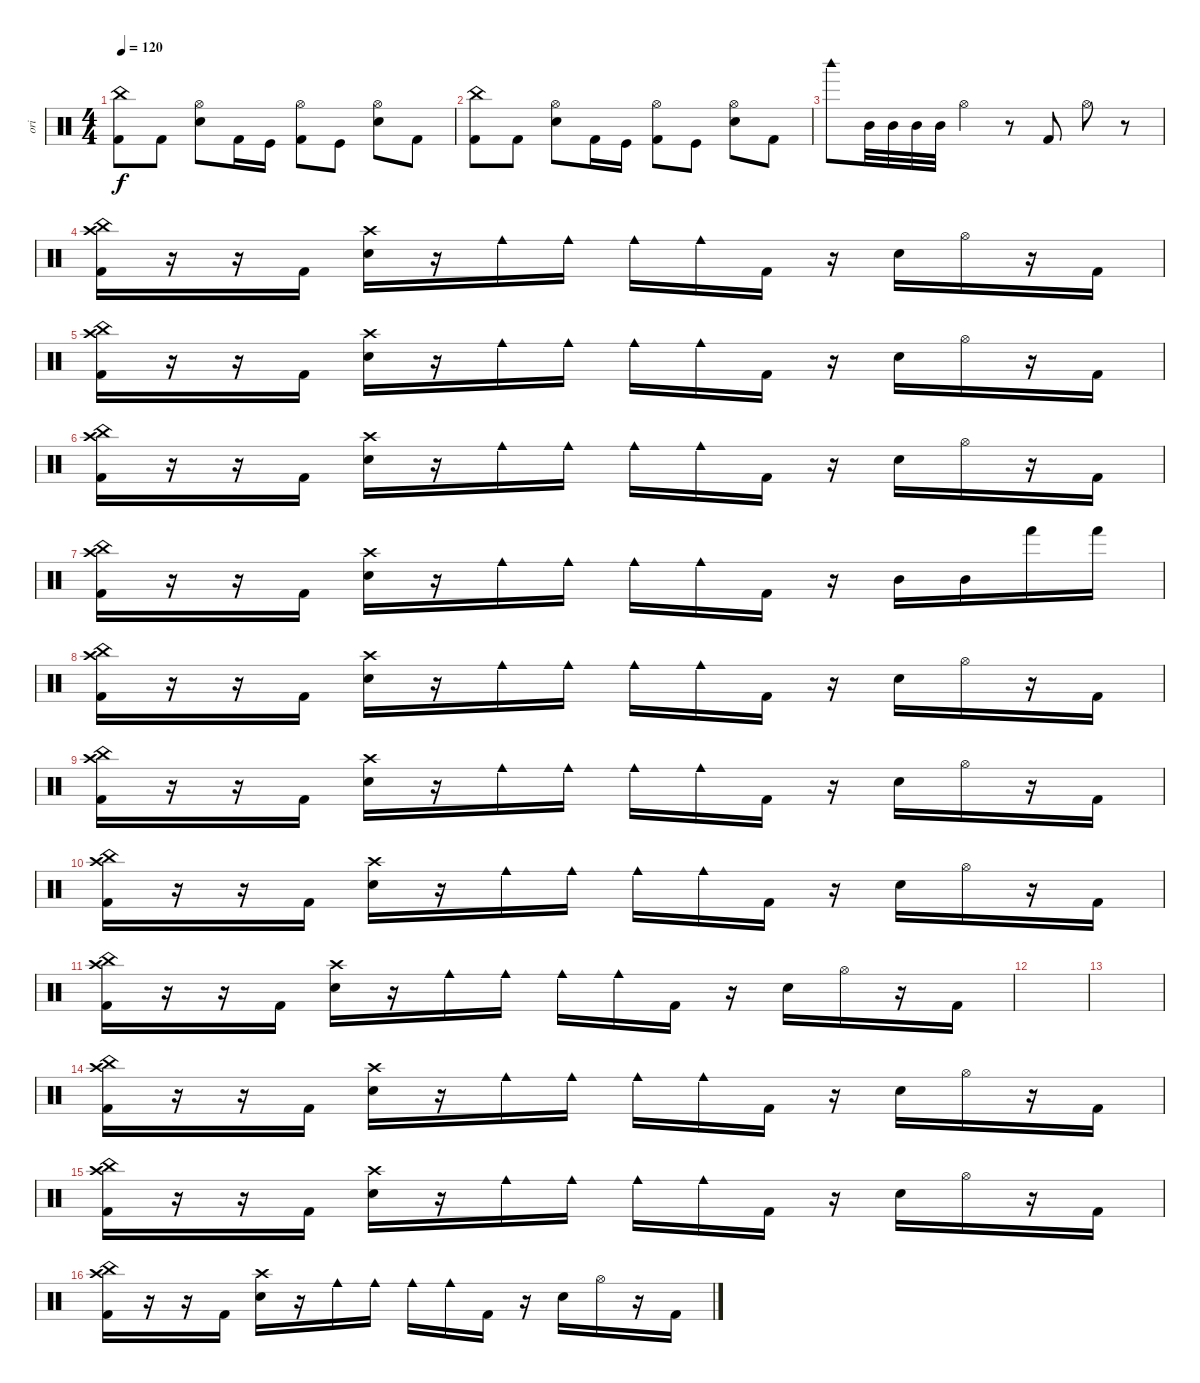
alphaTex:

\track ("ori" "ori") {instrument percussion}
\staff {score}
\articulation defaults
\ts (4 4)
\tempo 120
\clef neutral
\ks c
("Kick (hit) 2" "China (hit)").8{dy f} "Kick (hit) 2".8 ("Electric Snare (hit)" "Hi-Hat (open)").8 "Kick (hit) 2".16 "Kick (hit)".16 ("Kick (hit) 2" "Hi-Hat (open)").8 "Kick (hit)".8 ("Electric Snare (hit)" "Hi-Hat (open)").8 "Kick (hit) 2".8 |
("Kick (hit) 2" "China (hit)").8 "Kick (hit) 2".8 ("Electric Snare (hit)" "Hi-Hat (open)").8 "Kick (hit) 2".16 "Kick (hit)".16 ("Kick (hit) 2" "Hi-Hat (open)").8 "Kick (hit)".8 ("Electric Snare (hit)" "Hi-Hat (open)").8 "Kick (hit) 2".8 |
"Woodblock high (hit)".8 "Mid Tom (hit)".32 "Mid Tom (hit)".32 "Mid Tom (hit)".32 "Mid Tom (hit)".32 "Hi-Hat (open)".4 r.8 "Kick (hit) 2".8 "Hi-Hat (open)".8 r.8 |
("Crash high (hit)" "China (hit)" "Kick (hit) 2").16 r.16 r.16 "Kick (hit) 2".16 ("Crash high (hit)" "Electric Snare (hit)").16 r.16 "Cowbell medium (hit)".16 "Cowbell medium (hit)".16 "Cowbell medium (hit)".16 "Cowbell medium (hit)".16 "Kick (hit) 2".16 r.16 "Electric Snare (hit)".16 "Hi-Hat (open)".16 r.16 "Kick (hit) 2".16 |
("Crash high (hit)" "China (hit)" "Kick (hit) 2").16 r.16 r.16 "Kick (hit) 2".16 ("Crash high (hit)" "Electric Snare (hit)").16 r.16 "Cowbell medium (hit)".16 "Cowbell medium (hit)".16 "Cowbell medium (hit)".16 "Cowbell medium (hit)".16 "Kick (hit) 2".16 r.16 "Electric Snare (hit)".16 "Hi-Hat (open)".16 r.16 "Kick (hit) 2".16 |
("Crash high (hit)" "China (hit)" "Kick (hit) 2").16 r.16 r.16 "Kick (hit) 2".16 ("Crash high (hit)" "Electric Snare (hit)").16 r.16 "Cowbell medium (hit)".16 "Cowbell medium (hit)".16 "Cowbell medium (hit)".16 "Cowbell medium (hit)".16 "Kick (hit) 2".16 r.16 "Electric Snare (hit)".16 "Hi-Hat (open)".16 r.16 "Kick (hit) 2".16 |
("Crash high (hit)" "China (hit)" "Kick (hit) 2").16 r.16 r.16 "Kick (hit) 2".16 ("Crash high (hit)" "Electric Snare (hit)").16 r.16 "Cowbell medium (hit)".16 "Cowbell medium (hit)".16 "Cowbell medium (hit)".16 "Cowbell medium (hit)".16 "Kick (hit) 2".16 r.16 "Mid Tom (hit)".16 "Mid Tom (hit)".16 "Hand (hit)".16 "Hand (hit)".16 |
("Crash high (hit)" "China (hit)" "Kick (hit) 2").16 r.16 r.16 "Kick (hit) 2".16 ("Crash high (hit)" "Electric Snare (hit)").16 r.16 "Cowbell medium (hit)".16 "Cowbell medium (hit)".16 "Cowbell medium (hit)".16 "Cowbell medium (hit)".16 "Kick (hit) 2".16 r.16 "Electric Snare (hit)".16 "Hi-Hat (open)".16 r.16 "Kick (hit) 2".16 |
("Crash high (hit)" "China (hit)" "Kick (hit) 2").16 r.16 r.16 "Kick (hit) 2".16 ("Crash high (hit)" "Electric Snare (hit)").16 r.16 "Cowbell medium (hit)".16 "Cowbell medium (hit)".16 "Cowbell medium (hit)".16 "Cowbell medium (hit)".16 "Kick (hit) 2".16 r.16 "Electric Snare (hit)".16 "Hi-Hat (open)".16 r.16 "Kick (hit) 2".16 |
("Crash high (hit)" "China (hit)" "Kick (hit) 2").16 r.16 r.16 "Kick (hit) 2".16 ("Crash high (hit)" "Electric Snare (hit)").16 r.16 "Cowbell medium (hit)".16 "Cowbell medium (hit)".16 "Cowbell medium (hit)".16 "Cowbell medium (hit)".16 "Kick (hit) 2".16 r.16 "Electric Snare (hit)".16 "Hi-Hat (open)".16 r.16 "Kick (hit) 2".16 |
("Crash high (hit)" "China (hit)" "Kick (hit) 2").16 r.16 r.16 "Kick (hit) 2".16 ("Crash high (hit)" "Electric Snare (hit)").16 r.16 "Cowbell medium (hit)".16 "Cowbell medium (hit)".16 "Cowbell medium (hit)".16 "Cowbell medium (hit)".16 "Kick (hit) 2".16 r.16 "Electric Snare (hit)".16 "Hi-Hat (open)".16 r.16 "Kick (hit) 2".16 |
|
|
("Crash high (hit)" "China (hit)" "Kick (hit) 2").16 r.16 r.16 "Kick (hit) 2".16 ("Crash high (hit)" "Electric Snare (hit)").16 r.16 "Cowbell medium (hit)".16 "Cowbell medium (hit)".16 "Cowbell medium (hit)".16 "Cowbell medium (hit)".16 "Kick (hit) 2".16 r.16 "Electric Snare (hit)".16 "Hi-Hat (open)".16 r.16 "Kick (hit) 2".16 |
("Crash high (hit)" "China (hit)" "Kick (hit) 2").16 r.16 r.16 "Kick (hit) 2".16 ("Crash high (hit)" "Electric Snare (hit)").16 r.16 "Cowbell medium (hit)".16 "Cowbell medium (hit)".16 "Cowbell medium (hit)".16 "Cowbell medium (hit)".16 "Kick (hit) 2".16 r.16 "Electric Snare (hit)".16 "Hi-Hat (open)".16 r.16 "Kick (hit) 2".16 |
("Crash high (hit)" "China (hit)" "Kick (hit) 2").16 r.16 r.16 "Kick (hit) 2".16 ("Crash high (hit)" "Electric Snare (hit)").16 r.16 "Cowbell medium (hit)".16 "Cowbell medium (hit)".16 "Cowbell medium (hit)".16 "Cowbell medium (hit)".16 "Kick (hit) 2".16 r.16 "Electric Snare (hit)".16 "Hi-Hat (open)".16 r.16 "Kick (hit) 2".16
